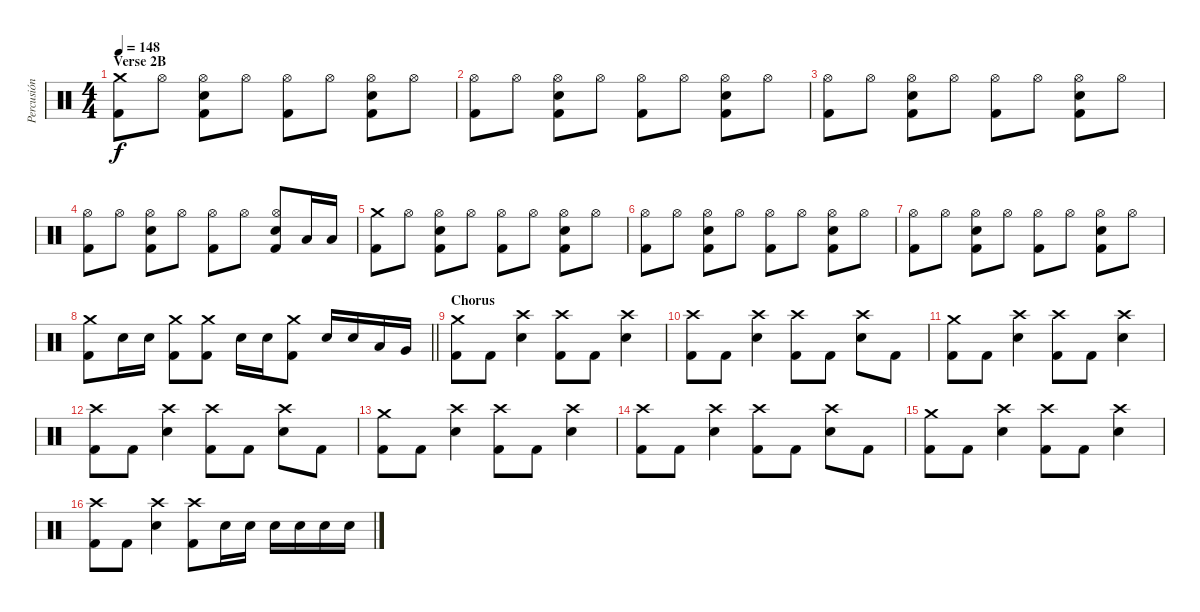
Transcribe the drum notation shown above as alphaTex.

\track ("Percusión" "Percusión") {instrument percussion}
\staff {score}
\articulation defaults
\ts (4 4)
\section ("" "Verse 2B")
\tempo 148
\clef neutral
\ks c
("Crash medium (hit)" "Kick (hit) 2").8{dy f} "Hi-Hat (open)".8 ("Hi-Hat (open)" "Electric Snare (hit)" "Kick (hit) 2").8 "Hi-Hat (open)".8 ("Hi-Hat (open)" "Kick (hit) 2").8 "Hi-Hat (open)".8 ("Hi-Hat (open)" "Electric Snare (hit)" "Kick (hit) 2").8 "Hi-Hat (open)".8 |
("Hi-Hat (open)" "Kick (hit) 2").8 "Hi-Hat (open)".8 ("Hi-Hat (open)" "Electric Snare (hit)" "Kick (hit) 2").8 "Hi-Hat (open)".8 ("Hi-Hat (open)" "Kick (hit) 2").8 "Hi-Hat (open)".8 ("Hi-Hat (open)" "Electric Snare (hit)" "Kick (hit) 2").8 "Hi-Hat (open)".8 |
("Hi-Hat (open)" "Kick (hit) 2").8 "Hi-Hat (open)".8 ("Hi-Hat (open)" "Electric Snare (hit)" "Kick (hit) 2").8 "Hi-Hat (open)".8 ("Hi-Hat (open)" "Kick (hit) 2").8 "Hi-Hat (open)".8 ("Hi-Hat (open)" "Electric Snare (hit)" "Kick (hit) 2").8 "Hi-Hat (open)".8 |
("Hi-Hat (open)" "Kick (hit) 2").8 "Hi-Hat (open)".8 ("Hi-Hat (open)" "Electric Snare (hit)" "Kick (hit) 2").8 "Hi-Hat (open)".8 ("Hi-Hat (open)" "Kick (hit) 2").8 "Hi-Hat (open)".8 ("Hi-Hat (open)" "Electric Snare (hit)" "Kick (hit) 2").8 "Low Tom (hit)".16 "Low Tom (hit)".16 |
("Crash medium (hit)" "Kick (hit) 2").8 "Hi-Hat (open)".8 ("Hi-Hat (open)" "Electric Snare (hit)" "Kick (hit) 2").8 "Hi-Hat (open)".8 ("Hi-Hat (open)" "Kick (hit) 2").8 "Hi-Hat (open)".8 ("Hi-Hat (open)" "Electric Snare (hit)" "Kick (hit) 2").8 "Hi-Hat (open)".8 |
("Hi-Hat (open)" "Kick (hit) 2").8 "Hi-Hat (open)".8 ("Hi-Hat (open)" "Electric Snare (hit)" "Kick (hit) 2").8 "Hi-Hat (open)".8 ("Hi-Hat (open)" "Kick (hit) 2").8 "Hi-Hat (open)".8 ("Hi-Hat (open)" "Electric Snare (hit)" "Kick (hit) 2").8 "Hi-Hat (open)".8 |
("Hi-Hat (open)" "Kick (hit) 2").8 "Hi-Hat (open)".8 ("Hi-Hat (open)" "Electric Snare (hit)" "Kick (hit) 2").8 "Hi-Hat (open)".8 ("Hi-Hat (open)" "Kick (hit) 2").8 "Hi-Hat (open)".8 ("Hi-Hat (open)" "Electric Snare (hit)" "Kick (hit) 2").8 "Hi-Hat (open)".8 |
\barLineRight lightlight
("Crash medium (hit)" "Kick (hit) 2").8 "Electric Snare (hit)".16 "Electric Snare (hit)".16 ("Crash medium (hit)" "Kick (hit) 2").8 ("Crash medium (hit)" "Kick (hit) 2").8 "Electric Snare (hit)".16 "Electric Snare (hit)".16 ("Crash medium (hit)" "Kick (hit) 2").8 "Electric Snare (hit)".16 "Electric Snare (hit)".16 "Low Tom (hit)".16 "Very Low Tom (hit)".16 |
\section ("" "Chorus")
("Crash medium (hit)" "Kick (hit) 2").8 "Kick (hit) 2".8 ("Crash high (hit)" "Electric Snare (hit)").4 ("Crash high (hit)" "Kick (hit) 2").8 "Kick (hit) 2".8 ("Crash high (hit)" "Electric Snare (hit)").4 |
("Crash high (hit)" "Kick (hit) 2").8 "Kick (hit) 2".8 ("Crash high (hit)" "Electric Snare (hit)").4 ("Crash high (hit)" "Kick (hit) 2").8 "Kick (hit) 2".8 ("Crash high (hit)" "Electric Snare (hit)").8 "Kick (hit) 2".8 |
("Crash medium (hit)" "Kick (hit) 2").8 "Kick (hit) 2".8 ("Crash high (hit)" "Electric Snare (hit)").4 ("Crash high (hit)" "Kick (hit) 2").8 "Kick (hit) 2".8 ("Crash high (hit)" "Electric Snare (hit)").4 |
("Crash high (hit)" "Kick (hit) 2").8 "Kick (hit) 2".8 ("Crash high (hit)" "Electric Snare (hit)").4 ("Crash high (hit)" "Kick (hit) 2").8 "Kick (hit) 2".8 ("Crash high (hit)" "Electric Snare (hit)").8 "Kick (hit) 2".8 |
("Crash medium (hit)" "Kick (hit) 2").8 "Kick (hit) 2".8 ("Crash high (hit)" "Electric Snare (hit)").4 ("Crash high (hit)" "Kick (hit) 2").8 "Kick (hit) 2".8 ("Crash high (hit)" "Electric Snare (hit)").4 |
("Crash high (hit)" "Kick (hit) 2").8 "Kick (hit) 2".8 ("Crash high (hit)" "Electric Snare (hit)").4 ("Crash high (hit)" "Kick (hit) 2").8 "Kick (hit) 2".8 ("Crash high (hit)" "Electric Snare (hit)").8 "Kick (hit) 2".8 |
("Crash medium (hit)" "Kick (hit) 2").8 "Kick (hit) 2".8 ("Crash high (hit)" "Electric Snare (hit)").4 ("Crash high (hit)" "Kick (hit) 2").8 "Kick (hit) 2".8 ("Crash high (hit)" "Electric Snare (hit)").4 |
("Crash high (hit)" "Kick (hit) 2").8 "Kick (hit) 2".8 ("Crash high (hit)" "Electric Snare (hit)").4 ("Crash high (hit)" "Kick (hit) 2").8 "Electric Snare (hit)".16 "Electric Snare (hit)".16 "Electric Snare (hit)".16 "Electric Snare (hit)".16 "Electric Snare (hit)".16 "Electric Snare (hit)".16
